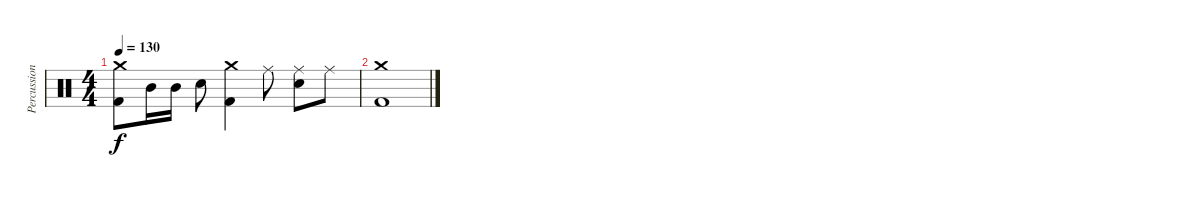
\track ("Percussion" "Percussion") {instrument percussion}
\staff {score}
\articulation defaults
\ts (4 4)
\tempo 130
\clef neutral
\ks c
("Crash medium (hit)" "Kick (hit) 2").8{dy f} "Mid Tom (hit)".16 "Mid Tom (hit)".16 "Snare (hit) 2".8 ("Crash medium (hit)" "Kick (hit) 2").4 "Ride (middle)".8 ("Ride (middle)" "Snare (hit) 2").8 "Ride (middle)".8 |
("Crash medium (hit)" "Kick (hit) 2").1
